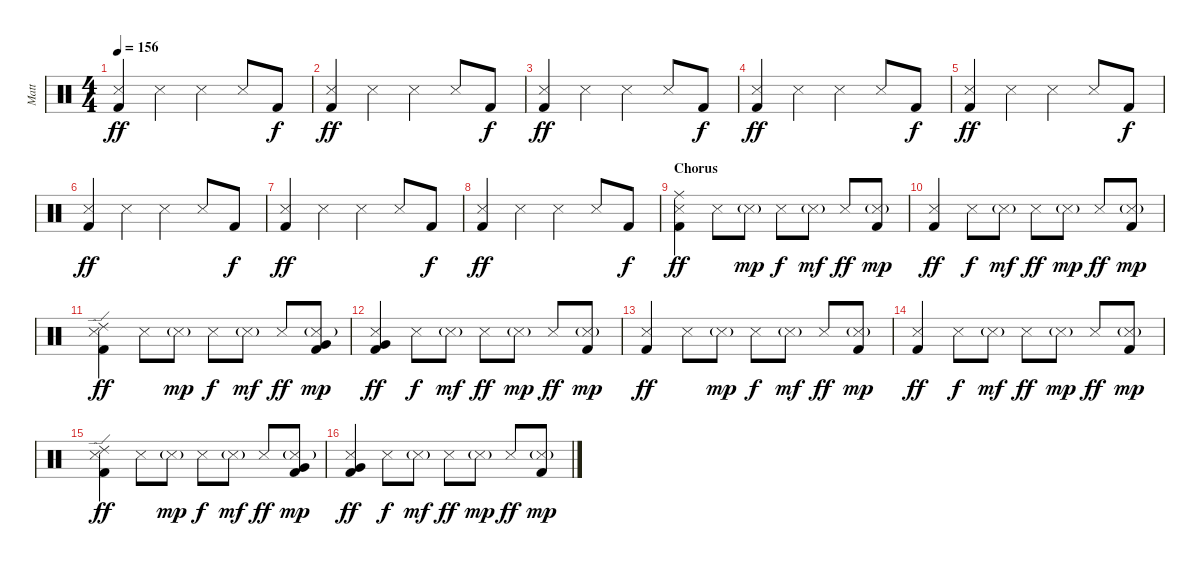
\track ("Matt" "Matt") {instrument percussion}
\staff {score}
\articulation defaults
\ts (4 4)
\tempo 156
\clef neutral
\ks c
("Snare (side stick) 3" "Kick (hit) 2").4{dy ff} "Snare (side stick) 3".4 "Snare (side stick) 3".4 "Snare (side stick) 3".8 "Kick (hit) 2".8{dy f} |
("Snare (side stick) 3" "Kick (hit) 2").4{dy ff} "Snare (side stick) 3".4 "Snare (side stick) 3".4 "Snare (side stick) 3".8 "Kick (hit) 2".8{dy f} |
("Snare (side stick) 3" "Kick (hit) 2").4{dy ff} "Snare (side stick) 3".4 "Snare (side stick) 3".4 "Snare (side stick) 3".8 "Kick (hit) 2".8{dy f} |
("Snare (side stick) 3" "Kick (hit) 2").4{dy ff} "Snare (side stick) 3".4 "Snare (side stick) 3".4 "Snare (side stick) 3".8 "Kick (hit) 2".8{dy f} |
("Snare (side stick) 3" "Kick (hit) 2").4{dy ff} "Snare (side stick) 3".4 "Snare (side stick) 3".4 "Snare (side stick) 3".8 "Kick (hit) 2".8{dy f} |
("Snare (side stick) 3" "Kick (hit) 2").4{dy ff} "Snare (side stick) 3".4 "Snare (side stick) 3".4 "Snare (side stick) 3".8 "Kick (hit) 2".8{dy f} |
("Snare (side stick) 3" "Kick (hit) 2").4{dy ff} "Snare (side stick) 3".4 "Snare (side stick) 3".4 "Snare (side stick) 3".8 "Kick (hit) 2".8{dy f} |
("Snare (side stick) 3" "Kick (hit) 2").4{dy ff} "Snare (side stick) 3".4 "Snare (side stick) 3".4 "Snare (side stick) 3".8 "Kick (hit) 2".8{dy f} |
\section ("" "Chorus")
("Ride (middle)" "Snare (side stick) 3" "Kick (hit) 2").4{dy ff} "Snare (side stick) 3".8 "Snare (side stick) 3"{g}.8{dy mp} "Snare (side stick) 3".8{dy f} "Snare (side stick) 3"{g}.8{dy mf} "Snare (side stick) 3".8{dy ff} ("Snare (side stick) 3"{g} "Kick (hit) 2").8{dy mp} |
("Snare (side stick) 3" "Kick (hit) 2").4{dy ff} "Snare (side stick) 3".8{dy f} "Snare (side stick) 3"{g}.8{dy mf} "Snare (side stick) 3".8{dy ff} "Snare (side stick) 3"{g}.8{dy mp} "Snare (side stick) 3".8{dy ff} ("Snare (side stick) 3"{g} "Kick (hit) 2").8{dy mp} |
("Ride (edge) 2" "Snare (side stick) 3" "Kick (hit) 2").4{dy ff} "Snare (side stick) 3".8 "Snare (side stick) 3"{g}.8{dy mp} "Snare (side stick) 3".8{dy f} "Snare (side stick) 3"{g}.8{dy mf} "Snare (side stick) 3".8{dy ff} ("Snare (side stick) 3"{g} "Very Low Tom (hit)" "Kick (hit) 2").8{dy mp} |
("Snare (side stick) 3" "Very Low Tom (hit)" "Kick (hit) 2").4{dy ff} "Snare (side stick) 3".8{dy f} "Snare (side stick) 3"{g}.8{dy mf} "Snare (side stick) 3".8{dy ff} "Snare (side stick) 3"{g}.8{dy mp} "Snare (side stick) 3".8{dy ff} ("Snare (side stick) 3"{g} "Kick (hit) 2").8{dy mp} |
("Snare (side stick) 3" "Kick (hit) 2").4{dy ff} "Snare (side stick) 3".8 "Snare (side stick) 3"{g}.8{dy mp} "Snare (side stick) 3".8{dy f} "Snare (side stick) 3"{g}.8{dy mf} "Snare (side stick) 3".8{dy ff} ("Snare (side stick) 3"{g} "Kick (hit) 2").8{dy mp} |
("Snare (side stick) 3" "Kick (hit) 2").4{dy ff} "Snare (side stick) 3".8{dy f} "Snare (side stick) 3"{g}.8{dy mf} "Snare (side stick) 3".8{dy ff} "Snare (side stick) 3"{g}.8{dy mp} "Snare (side stick) 3".8{dy ff} ("Snare (side stick) 3"{g} "Kick (hit) 2").8{dy mp} |
("Ride (edge) 2" "Snare (side stick) 3" "Kick (hit) 2").4{dy ff} "Snare (side stick) 3".8 "Snare (side stick) 3"{g}.8{dy mp} "Snare (side stick) 3".8{dy f} "Snare (side stick) 3"{g}.8{dy mf} "Snare (side stick) 3".8{dy ff} ("Snare (side stick) 3"{g} "Very Low Tom (hit)" "Kick (hit) 2").8{dy mp} |
("Snare (side stick) 3" "Very Low Tom (hit)" "Kick (hit) 2").4{dy ff} "Snare (side stick) 3".8{dy f} "Snare (side stick) 3"{g}.8{dy mf} "Snare (side stick) 3".8{dy ff} "Snare (side stick) 3"{g}.8{dy mp} "Snare (side stick) 3".8{dy ff} ("Snare (side stick) 3"{g} "Kick (hit) 2").8{dy mp}
